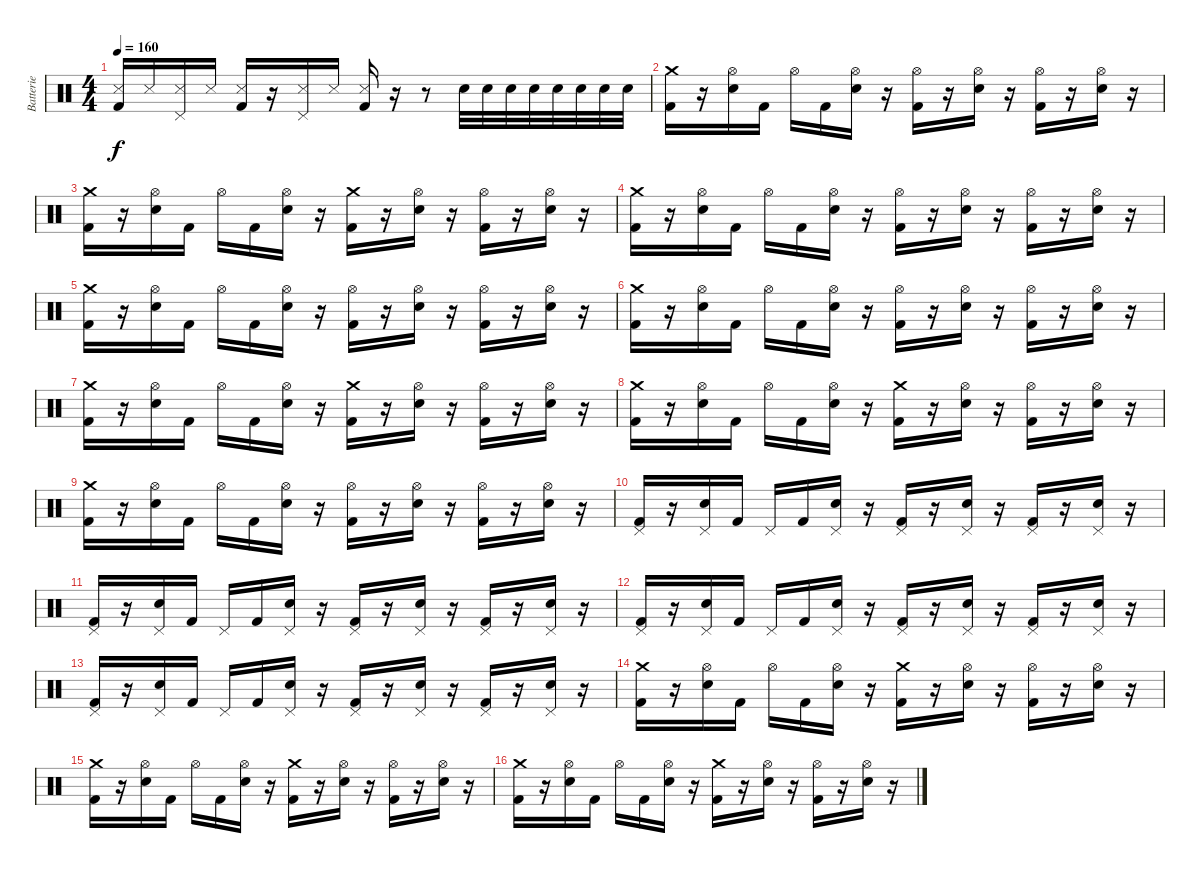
\track ("Batterie" "Batterie") {instrument percussion}
\staff {score}
\articulation defaults
\ts (4 4)
\tempo 160
\clef neutral
\ks c
("Snare (side stick) 3" "Kick (hit) 2").16{dy f} "Snare (side stick) 3".16 ("Snare (side stick) 3" "Pedal Hi-Hat (hit)").16 "Snare (side stick) 3".16 ("Snare (side stick) 3" "Kick (hit) 2").16 r.16 ("Snare (side stick) 3" "Pedal Hi-Hat (hit)").16 "Snare (side stick) 3".16 ("Snare (side stick) 3" "Kick (hit) 2").16 r.16 r.8 "Snare (hit) 2".32 "Snare (hit) 2".32 "Snare (hit) 2".32 "Snare (hit) 2".32 "Snare (hit) 2".32 "Snare (hit) 2".32 "Snare (hit) 2".32 "Snare (hit) 2".32 |
("Crash medium (hit)" "Kick (hit) 2").16 r.16 ("Hi-Hat (open)" "Electric Snare (hit)").16 "Kick (hit) 2".16 "Hi-Hat (open)".16 "Kick (hit) 2".16 ("Hi-Hat (open)" "Electric Snare (hit)").16 r.16 ("Hi-Hat (open)" "Kick (hit) 2").16 r.16 ("Hi-Hat (open)" "Electric Snare (hit)").16 r.16 ("Hi-Hat (open)" "Kick (hit) 2").16 r.16 ("Hi-Hat (open)" "Electric Snare (hit)").16 r.16 |
("Crash medium (hit)" "Kick (hit) 2").16 r.16 ("Hi-Hat (open)" "Electric Snare (hit)").16 "Kick (hit) 2".16 "Hi-Hat (open)".16 "Kick (hit) 2".16 ("Hi-Hat (open)" "Electric Snare (hit)").16 r.16 ("Crash medium (hit)" "Kick (hit) 2").16 r.16 ("Hi-Hat (open)" "Electric Snare (hit)").16 r.16 ("Hi-Hat (open)" "Kick (hit) 2").16 r.16 ("Hi-Hat (open)" "Electric Snare (hit)").16 r.16 |
("Crash medium (hit)" "Kick (hit) 2").16 r.16 ("Hi-Hat (open)" "Electric Snare (hit)").16 "Kick (hit) 2".16 "Hi-Hat (open)".16 "Kick (hit) 2".16 ("Hi-Hat (open)" "Electric Snare (hit)").16 r.16 ("Hi-Hat (open)" "Kick (hit) 2").16 r.16 ("Hi-Hat (open)" "Electric Snare (hit)").16 r.16 ("Hi-Hat (open)" "Kick (hit) 2").16 r.16 ("Hi-Hat (open)" "Electric Snare (hit)").16 r.16 |
("Crash medium (hit)" "Kick (hit) 2").16 r.16 ("Hi-Hat (open)" "Electric Snare (hit)").16 "Kick (hit) 2".16 "Hi-Hat (open)".16 "Kick (hit) 2".16 ("Hi-Hat (open)" "Electric Snare (hit)").16 r.16 ("Hi-Hat (open)" "Kick (hit) 2").16 r.16 ("Hi-Hat (open)" "Electric Snare (hit)").16 r.16 ("Hi-Hat (open)" "Kick (hit) 2").16 r.16 ("Hi-Hat (open)" "Electric Snare (hit)").16 r.16 |
("Crash medium (hit)" "Kick (hit) 2").16 r.16 ("Hi-Hat (open)" "Electric Snare (hit)").16 "Kick (hit) 2".16 "Hi-Hat (open)".16 "Kick (hit) 2".16 ("Hi-Hat (open)" "Electric Snare (hit)").16 r.16 ("Hi-Hat (open)" "Kick (hit) 2").16 r.16 ("Hi-Hat (open)" "Electric Snare (hit)").16 r.16 ("Hi-Hat (open)" "Kick (hit) 2").16 r.16 ("Hi-Hat (open)" "Electric Snare (hit)").16 r.16 |
("Crash medium (hit)" "Kick (hit) 2").16 r.16 ("Hi-Hat (open)" "Electric Snare (hit)").16 "Kick (hit) 2".16 "Hi-Hat (open)".16 "Kick (hit) 2".16 ("Hi-Hat (open)" "Electric Snare (hit)").16 r.16 ("Crash medium (hit)" "Kick (hit) 2").16 r.16 ("Hi-Hat (open)" "Electric Snare (hit)").16 r.16 ("Hi-Hat (open)" "Kick (hit) 2").16 r.16 ("Hi-Hat (open)" "Electric Snare (hit)").16 r.16 |
("Crash medium (hit)" "Kick (hit) 2").16 r.16 ("Hi-Hat (open)" "Electric Snare (hit)").16 "Kick (hit) 2".16 "Hi-Hat (open)".16 "Kick (hit) 2".16 ("Hi-Hat (open)" "Electric Snare (hit)").16 r.16 ("Crash medium (hit)" "Kick (hit) 2").16 r.16 ("Hi-Hat (open)" "Electric Snare (hit)").16 r.16 ("Hi-Hat (open)" "Kick (hit) 2").16 r.16 ("Hi-Hat (open)" "Electric Snare (hit)").16 r.16 |
("Crash medium (hit)" "Kick (hit) 2").16 r.16 ("Hi-Hat (open)" "Electric Snare (hit)").16 "Kick (hit) 2".16 "Hi-Hat (open)".16 "Kick (hit) 2".16 ("Hi-Hat (open)" "Electric Snare (hit)").16 r.16 ("Hi-Hat (open)" "Kick (hit) 2").16 r.16 ("Hi-Hat (open)" "Electric Snare (hit)").16 r.16 ("Hi-Hat (open)" "Kick (hit) 2").16 r.16 ("Hi-Hat (open)" "Electric Snare (hit)").16 r.16 |
("Pedal Hi-Hat (hit)" "Kick (hit) 2").16 r.16 ("Pedal Hi-Hat (hit)" "Electric Snare (hit)").16 "Kick (hit) 2".16 "Pedal Hi-Hat (hit)".16 "Kick (hit) 2".16 ("Pedal Hi-Hat (hit)" "Electric Snare (hit)").16 r.16 ("Pedal Hi-Hat (hit)" "Kick (hit) 2").16 r.16 ("Pedal Hi-Hat (hit)" "Electric Snare (hit)").16 r.16 ("Pedal Hi-Hat (hit)" "Kick (hit) 2").16 r.16 ("Pedal Hi-Hat (hit)" "Electric Snare (hit)").16 r.16 |
("Pedal Hi-Hat (hit)" "Kick (hit) 2").16 r.16 ("Pedal Hi-Hat (hit)" "Electric Snare (hit)").16 "Kick (hit) 2".16 "Pedal Hi-Hat (hit)".16 "Kick (hit) 2".16 ("Pedal Hi-Hat (hit)" "Electric Snare (hit)").16 r.16 ("Pedal Hi-Hat (hit)" "Kick (hit) 2").16 r.16 ("Pedal Hi-Hat (hit)" "Electric Snare (hit)").16 r.16 ("Pedal Hi-Hat (hit)" "Kick (hit) 2").16 r.16 ("Pedal Hi-Hat (hit)" "Electric Snare (hit)").16 r.16 |
("Pedal Hi-Hat (hit)" "Kick (hit) 2").16 r.16 ("Pedal Hi-Hat (hit)" "Electric Snare (hit)").16 "Kick (hit) 2".16 "Pedal Hi-Hat (hit)".16 "Kick (hit) 2".16 ("Pedal Hi-Hat (hit)" "Electric Snare (hit)").16 r.16 ("Pedal Hi-Hat (hit)" "Kick (hit) 2").16 r.16 ("Pedal Hi-Hat (hit)" "Electric Snare (hit)").16 r.16 ("Pedal Hi-Hat (hit)" "Kick (hit) 2").16 r.16 ("Pedal Hi-Hat (hit)" "Electric Snare (hit)").16 r.16 |
("Pedal Hi-Hat (hit)" "Kick (hit) 2").16 r.16 ("Pedal Hi-Hat (hit)" "Electric Snare (hit)").16 "Kick (hit) 2".16 "Pedal Hi-Hat (hit)".16 "Kick (hit) 2".16 ("Pedal Hi-Hat (hit)" "Electric Snare (hit)").16 r.16 ("Pedal Hi-Hat (hit)" "Kick (hit) 2").16 r.16 ("Pedal Hi-Hat (hit)" "Electric Snare (hit)").16 r.16 ("Pedal Hi-Hat (hit)" "Kick (hit) 2").16 r.16 ("Pedal Hi-Hat (hit)" "Electric Snare (hit)").16 r.16 |
("Crash medium (hit)" "Kick (hit) 2").16 r.16 ("Hi-Hat (open)" "Electric Snare (hit)").16 "Kick (hit) 2".16 "Hi-Hat (open)".16 "Kick (hit) 2".16 ("Hi-Hat (open)" "Electric Snare (hit)").16 r.16 ("Crash medium (hit)" "Kick (hit) 2").16 r.16 ("Hi-Hat (open)" "Electric Snare (hit)").16 r.16 ("Hi-Hat (open)" "Kick (hit) 2").16 r.16 ("Hi-Hat (open)" "Electric Snare (hit)").16 r.16 |
("Crash medium (hit)" "Kick (hit) 2").16 r.16 ("Hi-Hat (open)" "Electric Snare (hit)").16 "Kick (hit) 2".16 "Hi-Hat (open)".16 "Kick (hit) 2".16 ("Hi-Hat (open)" "Electric Snare (hit)").16 r.16 ("Crash medium (hit)" "Kick (hit) 2").16 r.16 ("Hi-Hat (open)" "Electric Snare (hit)").16 r.16 ("Hi-Hat (open)" "Kick (hit) 2").16 r.16 ("Hi-Hat (open)" "Electric Snare (hit)").16 r.16 |
("Crash medium (hit)" "Kick (hit) 2").16 r.16 ("Hi-Hat (open)" "Electric Snare (hit)").16 "Kick (hit) 2".16 "Hi-Hat (open)".16 "Kick (hit) 2".16 ("Hi-Hat (open)" "Electric Snare (hit)").16 r.16 ("Crash medium (hit)" "Kick (hit) 2").16 r.16 ("Hi-Hat (open)" "Electric Snare (hit)").16 r.16 ("Hi-Hat (open)" "Kick (hit) 2").16 r.16 ("Hi-Hat (open)" "Electric Snare (hit)").16 r.16
